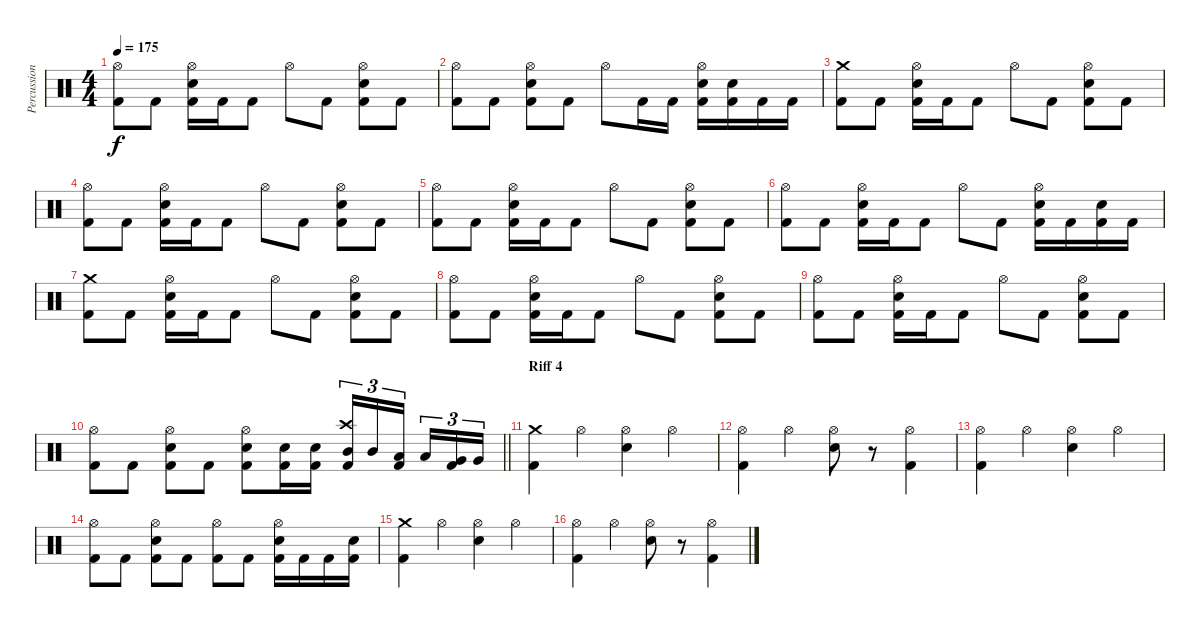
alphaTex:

\track ("Percussion" "Percussion") {instrument percussion}
\staff {score}
\articulation defaults
\ts (4 4)
\tempo 175
\clef neutral
\ks c
("Hi-Hat (open)" "Kick (hit) 2").8{dy f} "Kick (hit) 2".8 ("Kick (hit) 2" "Hi-Hat (open)" "Snare (hit) 2").16 "Kick (hit) 2".16 "Kick (hit) 2".8 "Hi-Hat (open)".8 "Kick (hit) 2".8 ("Kick (hit) 2" "Hi-Hat (open)" "Snare (hit) 2").8 "Kick (hit) 2".8 |
("Hi-Hat (open)" "Kick (hit) 2").8 "Kick (hit) 2".8 ("Kick (hit) 2" "Hi-Hat (open)" "Snare (hit) 2").8 "Kick (hit) 2".8 "Hi-Hat (open)".8 "Kick (hit) 2".16 "Kick (hit) 2".16 ("Kick (hit) 2" "Hi-Hat (open)" "Snare (hit) 2").16 ("Kick (hit) 2" "Snare (hit) 2").16 "Kick (hit) 2".16 "Kick (hit) 2".16 |
("Crash medium (hit)" "Kick (hit) 2").8 "Kick (hit) 2".8 ("Kick (hit) 2" "Hi-Hat (open)" "Snare (hit) 2").16 "Kick (hit) 2".16 "Kick (hit) 2".8 "Hi-Hat (open)".8 "Kick (hit) 2".8 ("Kick (hit) 2" "Hi-Hat (open)" "Snare (hit) 2").8 "Kick (hit) 2".8 |
("Hi-Hat (open)" "Kick (hit) 2").8 "Kick (hit) 2".8 ("Kick (hit) 2" "Hi-Hat (open)" "Snare (hit) 2").16 "Kick (hit) 2".16 "Kick (hit) 2".8 "Hi-Hat (open)".8 "Kick (hit) 2".8 ("Kick (hit) 2" "Hi-Hat (open)" "Snare (hit) 2").8 "Kick (hit) 2".8 |
("Hi-Hat (open)" "Kick (hit) 2").8 "Kick (hit) 2".8 ("Kick (hit) 2" "Hi-Hat (open)" "Snare (hit) 2").16 "Kick (hit) 2".16 "Kick (hit) 2".8 "Hi-Hat (open)".8 "Kick (hit) 2".8 ("Kick (hit) 2" "Hi-Hat (open)" "Snare (hit) 2").8 "Kick (hit) 2".8 |
("Hi-Hat (open)" "Kick (hit) 2").8 "Kick (hit) 2".8 ("Kick (hit) 2" "Hi-Hat (open)" "Snare (hit) 2").16 "Kick (hit) 2".16 "Kick (hit) 2".8 "Hi-Hat (open)".8 "Kick (hit) 2".8 ("Kick (hit) 2" "Hi-Hat (open)" "Snare (hit) 2").16 "Kick (hit) 2".16 ("Kick (hit) 2" "Snare (hit) 2").16 "Kick (hit) 2".16 |
("Crash medium (hit)" "Kick (hit) 2").8 "Kick (hit) 2".8 ("Kick (hit) 2" "Hi-Hat (open)" "Snare (hit) 2").16 "Kick (hit) 2".16 "Kick (hit) 2".8 "Hi-Hat (open)".8 "Kick (hit) 2".8 ("Kick (hit) 2" "Hi-Hat (open)" "Snare (hit) 2").8 "Kick (hit) 2".8 |
("Hi-Hat (open)" "Kick (hit) 2").8 "Kick (hit) 2".8 ("Kick (hit) 2" "Hi-Hat (open)" "Snare (hit) 2").16 "Kick (hit) 2".16 "Kick (hit) 2".8 "Hi-Hat (open)".8 "Kick (hit) 2".8 ("Kick (hit) 2" "Hi-Hat (open)" "Snare (hit) 2").8 "Kick (hit) 2".8 |
("Hi-Hat (open)" "Kick (hit) 2").8 "Kick (hit) 2".8 ("Kick (hit) 2" "Hi-Hat (open)" "Snare (hit) 2").16 "Kick (hit) 2".16 "Kick (hit) 2".8 "Hi-Hat (open)".8 "Kick (hit) 2".8 ("Kick (hit) 2" "Hi-Hat (open)" "Snare (hit) 2").8 "Kick (hit) 2".8 |
\barLineRight lightlight
("Hi-Hat (open)" "Kick (hit) 2").8 "Kick (hit) 2".8 ("Kick (hit) 2" "Hi-Hat (open)" "Snare (hit) 2").8 "Kick (hit) 2".8 ("Kick (hit) 2" "Hi-Hat (open)" "Snare (hit) 2").8 ("Kick (hit) 2" "Snare (hit) 2").16 ("Kick (hit) 2" "Snare (hit) 2").16 ("Kick (hit) 2" "Crash high (hit)" "Mid Tom (hit)").16{tu (3 2)} "Mid Tom (hit)".16{tu (3 2)} ("Kick (hit) 2" "Low Tom (hit)").16{tu (3 2)} "Low Tom (hit)".16{tu (3 2)} ("Kick (hit) 2" "Very Low Tom (hit)").16{tu (3 2)} "Very Low Tom (hit)".16{tu (3 2)} |
\section ("" "Riff 4")
("Crash medium (hit)" "Kick (hit) 2").4 "Hi-Hat (open)".4 ("Hi-Hat (open)" "Snare (hit) 2").4 "Hi-Hat (open)".4 |
("Hi-Hat (open)" "Kick (hit) 2").4 "Hi-Hat (open)".4 ("Hi-Hat (open)" "Snare (hit) 2").8 r.8 ("Hi-Hat (open)" "Kick (hit) 2").4 |
("Hi-Hat (open)" "Kick (hit) 2").4 "Hi-Hat (open)".4 ("Hi-Hat (open)" "Snare (hit) 2").4 "Hi-Hat (open)".4 |
("Hi-Hat (open)" "Kick (hit) 2").8 "Kick (hit) 2".8 ("Kick (hit) 2" "Hi-Hat (open)" "Snare (hit) 2").8 "Kick (hit) 2".8 ("Hi-Hat (open)" "Kick (hit) 2").8 "Kick (hit) 2".8 ("Kick (hit) 2" "Hi-Hat (open)" "Snare (hit) 2").16 "Kick (hit) 2".16 "Kick (hit) 2".16 ("Kick (hit) 2" "Snare (hit) 2").16 |
("Crash medium (hit)" "Kick (hit) 2").4 "Hi-Hat (open)".4 ("Hi-Hat (open)" "Snare (hit) 2").4 "Hi-Hat (open)".4 |
("Hi-Hat (open)" "Kick (hit) 2").4 "Hi-Hat (open)".4 ("Hi-Hat (open)" "Snare (hit) 2").8 r.8 ("Hi-Hat (open)" "Kick (hit) 2").4
